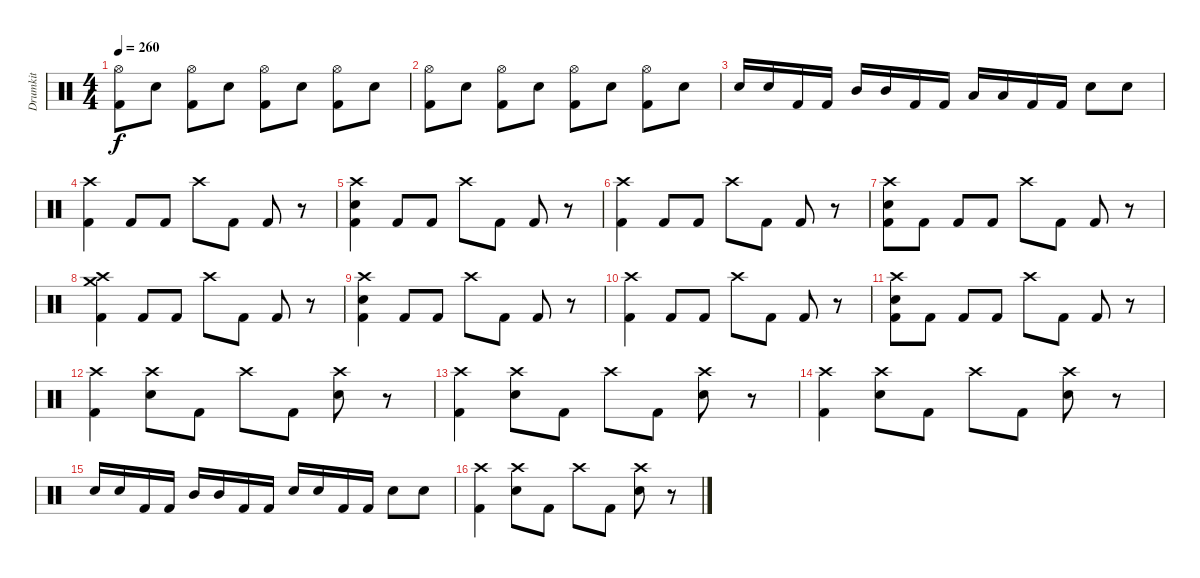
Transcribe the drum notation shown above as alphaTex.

\track ("Drumkit" "Drumkit") {instrument percussion}
\staff {score}
\articulation defaults
\ts (4 4)
\tempo 260
\clef neutral
\ks c
("Hi-Hat (open)" "Kick (hit) 2").8{dy f} "Electric Snare (hit)".8 ("Hi-Hat (open)" "Kick (hit) 2").8 "Electric Snare (hit)".8 ("Hi-Hat (open)" "Kick (hit) 2").8 "Electric Snare (hit)".8 ("Hi-Hat (open)" "Kick (hit) 2").8 "Electric Snare (hit)".8 |
("Hi-Hat (open)" "Kick (hit) 2").8 "Electric Snare (hit)".8 ("Hi-Hat (open)" "Kick (hit) 2").8 "Electric Snare (hit)".8 ("Hi-Hat (open)" "Kick (hit) 2").8 "Electric Snare (hit)".8 ("Hi-Hat (open)" "Kick (hit) 2").8 "Electric Snare (hit)".8 |
"Electric Snare (hit)".16 "Electric Snare (hit)".16 "Kick (hit) 2".16 "Kick (hit) 2".16 "Mid Tom (hit)".16 "Mid Tom (hit)".16 "Kick (hit) 2".16 "Kick (hit) 2".16 "Low Tom (hit)".16 "Low Tom (hit)".16 "Kick (hit) 2".16 "Kick (hit) 2".16 "Electric Snare (hit)".8 "Electric Snare (hit)".8 |
("Crash high (hit)" "Kick (hit) 2").4 "Kick (hit) 2".8 "Kick (hit) 2".8 "Crash high (hit)".8 "Kick (hit) 2".8 "Kick (hit) 2".8 r.8 |
("Crash high (hit)" "Electric Snare (hit)" "Kick (hit) 2").4 "Kick (hit) 2".8 "Kick (hit) 2".8 "Crash high (hit)".8 "Kick (hit) 2".8 "Kick (hit) 2".8 r.8 |
("Crash high (hit)" "Kick (hit) 2").4 "Kick (hit) 2".8 "Kick (hit) 2".8 "Crash high (hit)".8 "Kick (hit) 2".8 "Kick (hit) 2".8 r.8 |
("Crash high (hit)" "Electric Snare (hit)" "Kick (hit) 2").8 "Kick (hit) 2".8 "Kick (hit) 2".8 "Kick (hit) 2".8 "Crash high (hit)".8 "Kick (hit) 2".8 "Kick (hit) 2".8 r.8 |
("Crash medium (hit)" "Crash high (hit)" "Kick (hit) 2").4 "Kick (hit) 2".8 "Kick (hit) 2".8 "Crash high (hit)".8 "Kick (hit) 2".8 "Kick (hit) 2".8 r.8 |
("Crash high (hit)" "Electric Snare (hit)" "Kick (hit) 2").4 "Kick (hit) 2".8 "Kick (hit) 2".8 "Crash high (hit)".8 "Kick (hit) 2".8 "Kick (hit) 2".8 r.8 |
("Crash high (hit)" "Kick (hit) 2").4 "Kick (hit) 2".8 "Kick (hit) 2".8 "Crash high (hit)".8 "Kick (hit) 2".8 "Kick (hit) 2".8 r.8 |
("Crash high (hit)" "Electric Snare (hit)" "Kick (hit) 2").8 "Kick (hit) 2".8 "Kick (hit) 2".8 "Kick (hit) 2".8 "Crash high (hit)".8 "Kick (hit) 2".8 "Kick (hit) 2".8 r.8 |
("Crash high (hit)" "Kick (hit) 2").4 ("Crash high (hit)" "Electric Snare (hit)").8 "Kick (hit) 2".8 "Crash high (hit)".8 "Kick (hit) 2".8 ("Crash high (hit)" "Electric Snare (hit)").8 r.8 |
("Crash high (hit)" "Kick (hit) 2").4 ("Crash high (hit)" "Electric Snare (hit)").8 "Kick (hit) 2".8 "Crash high (hit)".8 "Kick (hit) 2".8 ("Crash high (hit)" "Electric Snare (hit)").8 r.8 |
("Crash high (hit)" "Kick (hit) 2").4 ("Crash high (hit)" "Electric Snare (hit)").8 "Kick (hit) 2".8 "Crash high (hit)".8 "Kick (hit) 2".8 ("Crash high (hit)" "Electric Snare (hit)").8 r.8 |
"Electric Snare (hit)".16 "Electric Snare (hit)".16 "Kick (hit) 2".16 "Kick (hit) 2".16 "Mid Tom (hit)".16 "Mid Tom (hit)".16 "Kick (hit) 2".16 "Kick (hit) 2".16 "Electric Snare (hit)".16 "Electric Snare (hit)".16 "Kick (hit) 2".16 "Kick (hit) 2".16 "Electric Snare (hit)".8 "Electric Snare (hit)".8 |
("Crash high (hit)" "Kick (hit) 2").4 ("Crash high (hit)" "Electric Snare (hit)").8 "Kick (hit) 2".8 "Crash high (hit)".8 "Kick (hit) 2".8 ("Crash high (hit)" "Electric Snare (hit)").8 r.8
